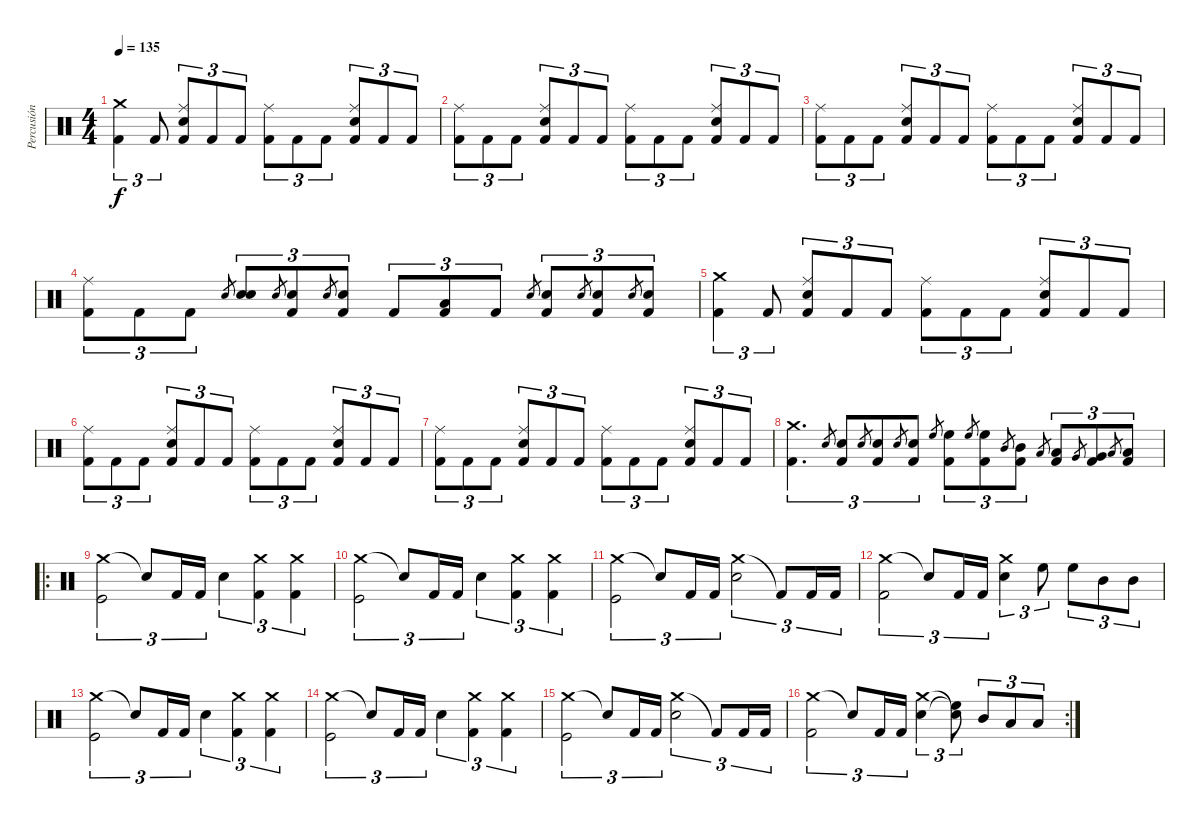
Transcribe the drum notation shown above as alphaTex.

\track ("Percusión" "Percusión") {instrument percussion}
\staff {score}
\articulation defaults
\ts (4 4)
\tempo 135
\clef neutral
\ks c
("Crash medium (hit)" "Kick (hit) 2").4{tu (3 2) dy f} "Kick (hit) 2".8{tu (3 2)} ("Ride (middle)" "Kick (hit) 2" "Snare (hit) 2").8{tu (3 2)} "Kick (hit) 2".8{tu (3 2)} "Kick (hit) 2".8{tu (3 2)} ("Ride (middle)" "Kick (hit) 2").8{tu (3 2)} "Kick (hit) 2".8{tu (3 2)} "Kick (hit) 2".8{tu (3 2)} ("Ride (middle)" "Kick (hit) 2" "Snare (hit) 2").8{tu (3 2)} "Kick (hit) 2".8{tu (3 2)} "Kick (hit) 2".8{tu (3 2)} |
("Ride (middle)" "Kick (hit) 2").8{tu (3 2)} "Kick (hit) 2".8{tu (3 2)} "Kick (hit) 2".8{tu (3 2)} ("Ride (middle)" "Snare (hit) 2" "Kick (hit) 2").8{tu (3 2)} "Kick (hit) 2".8{tu (3 2)} "Kick (hit) 2".8{tu (3 2)} ("Ride (middle)" "Kick (hit) 2").8{tu (3 2)} "Kick (hit) 2".8{tu (3 2)} "Kick (hit) 2".8{tu (3 2)} ("Ride (middle)" "Snare (hit) 2" "Kick (hit) 2").8{tu (3 2)} "Kick (hit) 2".8{tu (3 2)} "Kick (hit) 2".8{tu (3 2)} |
("Ride (middle)" "Kick (hit) 2").8{tu (3 2)} "Kick (hit) 2".8{tu (3 2)} "Kick (hit) 2".8{tu (3 2)} ("Ride (middle)" "Snare (hit) 2" "Kick (hit) 2").8{tu (3 2)} "Kick (hit) 2".8{tu (3 2)} "Kick (hit) 2".8{tu (3 2)} ("Ride (middle)" "Kick (hit) 2").8{tu (3 2)} "Kick (hit) 2".8{tu (3 2)} "Kick (hit) 2".8{tu (3 2)} ("Ride (middle)" "Snare (hit) 2" "Kick (hit) 2").8{tu (3 2)} "Kick (hit) 2".8{tu (3 2)} "Kick (hit) 2".8{tu (3 2)} |
("Ride (middle)" "Kick (hit) 2").8{tu (3 2)} "Kick (hit) 2".8{tu (3 2)} "Kick (hit) 2".8{tu (3 2)} "Snare (hit) 2".8{gr} ("Snare (hit) 2" "Snare (hit) 2").8{tu (3 2)} "Snare (hit) 2".8{gr} ("Snare (hit) 2" "Kick (hit) 2").8{tu (3 2)} "Snare (hit) 2".8{gr} ("Snare (hit) 2" "Kick (hit) 2").8{tu (3 2)} "Kick (hit) 2".8{tu (3 2)} ("Kick (hit) 2" "Low Tom (hit)").8{tu (3 2)} "Kick (hit) 2".8{tu (3 2)} "Snare (hit) 2".8{gr} ("Snare (hit) 2" "Kick (hit) 2").8{tu (3 2)} "Snare (hit) 2".8{gr} ("Snare (hit) 2" "Kick (hit) 2").8{tu (3 2)} "Snare (hit) 2".8{gr} ("Snare (hit) 2" "Kick (hit) 2").8{tu (3 2)} |
("Crash medium (hit)" "Kick (hit) 2").4{tu (3 2)} "Kick (hit) 2".8{tu (3 2)} ("Ride (middle)" "Kick (hit) 2" "Snare (hit) 2").8{tu (3 2)} "Kick (hit) 2".8{tu (3 2)} "Kick (hit) 2".8{tu (3 2)} ("Ride (middle)" "Kick (hit) 2").8{tu (3 2)} "Kick (hit) 2".8{tu (3 2)} "Kick (hit) 2".8{tu (3 2)} ("Ride (middle)" "Kick (hit) 2" "Snare (hit) 2").8{tu (3 2)} "Kick (hit) 2".8{tu (3 2)} "Kick (hit) 2".8{tu (3 2)} |
("Ride (middle)" "Kick (hit) 2").8{tu (3 2)} "Kick (hit) 2".8{tu (3 2)} "Kick (hit) 2".8{tu (3 2)} ("Ride (middle)" "Snare (hit) 2" "Kick (hit) 2").8{tu (3 2)} "Kick (hit) 2".8{tu (3 2)} "Kick (hit) 2".8{tu (3 2)} ("Ride (middle)" "Kick (hit) 2").8{tu (3 2)} "Kick (hit) 2".8{tu (3 2)} "Kick (hit) 2".8{tu (3 2)} ("Ride (middle)" "Snare (hit) 2" "Kick (hit) 2").8{tu (3 2)} "Kick (hit) 2".8{tu (3 2)} "Kick (hit) 2".8{tu (3 2)} |
("Ride (middle)" "Kick (hit) 2").8{tu (3 2)} "Kick (hit) 2".8{tu (3 2)} "Kick (hit) 2".8{tu (3 2)} ("Ride (middle)" "Snare (hit) 2" "Kick (hit) 2").8{tu (3 2)} "Kick (hit) 2".8{tu (3 2)} "Kick (hit) 2".8{tu (3 2)} ("Ride (middle)" "Kick (hit) 2").8{tu (3 2)} "Kick (hit) 2".8{tu (3 2)} "Kick (hit) 2".8{tu (3 2)} ("Ride (middle)" "Snare (hit) 2" "Kick (hit) 2").8{tu (3 2)} "Kick (hit) 2".8{tu (3 2)} "Kick (hit) 2".8{tu (3 2)} |
("Crash medium (hit)" "Kick (hit) 2").4{d tu (3 2)} "Snare (hit) 2".8{gr} ("Kick (hit) 2" "Snare (hit) 2").8{tu (3 2)} "Snare (hit) 2".8{gr} ("Kick (hit) 2" "Snare (hit) 2").8{tu (3 2)} "Snare (hit) 2".8{gr} ("Kick (hit) 2" "Snare (hit) 2").8{tu (3 2)} "High Floor Tom (hit)".8{gr} ("Kick (hit) 2" "High Floor Tom (hit)").8{tu (3 2)} "High Floor Tom (hit)".8{gr} ("Kick (hit) 2" "High Floor Tom (hit)").8{tu (3 2)} "Mid Tom (hit)".8{gr} ("Kick (hit) 2" "Mid Tom (hit)").8{tu (3 2)} "Low Tom (hit)".8{gr} ("Kick (hit) 2" "Low Tom (hit)").8{tu (3 2)} "Very Low Tom (hit)".8{gr} ("Kick (hit) 2" "Very Low Tom (hit)").8{tu (3 2)} "Low Floor Tom (hit)".8{gr} ("Kick (hit) 2" "Low Floor Tom (hit)").8{tu (3 2)} |
\ro
("Crash medium (hit)" "Kick (hit)").2{tu (3 2)} "Snare (hit)"{t}.8{tu (3 2)} "Kick (hit) 2".16{tu (3 2)} "Kick (hit) 2".16{tu (3 2)} "Snare (hit) 2".4{tu (3 2)} ("Crash medium (hit)" "Kick (hit) 2").4{tu (3 2)} ("Crash medium (hit)" "Kick (hit) 2").4{tu (3 2)} |
("Crash medium (hit)" "Kick (hit)").2{tu (3 2)} "Snare (hit)"{t}.8{tu (3 2)} "Kick (hit) 2".16{tu (3 2)} "Kick (hit) 2".16{tu (3 2)} "Snare (hit) 2".4{tu (3 2)} ("Crash medium (hit)" "Kick (hit) 2").4{tu (3 2)} ("Crash medium (hit)" "Kick (hit) 2").4{tu (3 2)} |
("Crash medium (hit)" "Kick (hit)").2{tu (3 2)} "Snare (hit)"{t}.8{tu (3 2)} "Kick (hit) 2".16{tu (3 2)} "Kick (hit) 2".16{tu (3 2)} ("Crash medium (hit)" "Snare (hit) 2").2{tu (3 2)} "Kick (hit) 2"{t}.8{tu (3 2)} "Kick (hit) 2".16{tu (3 2)} "Kick (hit) 2".16{tu (3 2)} |
("Crash medium (hit)" "Kick (hit) 2").2{tu (3 2)} "Snare (hit)"{t}.8{tu (3 2)} "Kick (hit) 2".16{tu (3 2)} "Kick (hit) 2".16{tu (3 2)} ("Crash medium (hit)" "Snare (hit) 2").4{tu (3 2)} "High Floor Tom (hit)".8{tu (3 2)} "High Floor Tom (hit)".8{tu (3 2)} "Mid Tom (hit)".8{tu (3 2)} "Mid Tom (hit)".8{tu (3 2)} |
("Crash medium (hit)" "Kick (hit)").2{tu (3 2)} "Snare (hit)"{t}.8{tu (3 2)} "Kick (hit) 2".16{tu (3 2)} "Kick (hit) 2".16{tu (3 2)} "Snare (hit) 2".4{tu (3 2)} ("Crash medium (hit)" "Kick (hit) 2").4{tu (3 2)} ("Crash medium (hit)" "Kick (hit) 2").4{tu (3 2)} |
("Crash medium (hit)" "Kick (hit)").2{tu (3 2)} "Snare (hit)"{t}.8{tu (3 2)} "Kick (hit) 2".16{tu (3 2)} "Kick (hit) 2".16{tu (3 2)} "Snare (hit) 2".4{tu (3 2)} ("Crash medium (hit)" "Kick (hit) 2").4{tu (3 2)} ("Crash medium (hit)" "Kick (hit) 2").4{tu (3 2)} |
("Crash medium (hit)" "Kick (hit)").2{tu (3 2)} "Snare (hit)"{t}.8{tu (3 2)} "Kick (hit) 2".16{tu (3 2)} "Kick (hit) 2".16{tu (3 2)} ("Crash medium (hit)" "Snare (hit) 2").2{tu (3 2)} "Kick (hit) 2"{t}.8{tu (3 2)} "Kick (hit) 2".16{tu (3 2)} "Kick (hit) 2".16{tu (3 2)} |
\rc 2
("Crash medium (hit)" "Kick (hit) 2").2{tu (3 2)} "Snare (hit)"{t}.8{tu (3 2)} "Kick (hit) 2".16{tu (3 2)} "Kick (hit) 2".16{tu (3 2)} ("Crash medium (hit)" "Snare (hit) 2").4{tu (3 2)} ("Snare (hit)"{t} "High Floor Tom (hit)"{t}).8{tu (3 2)} "Mid Tom (hit)".8{tu (3 2)} "Low Tom (hit)".8{tu (3 2)} "Low Tom (hit)".8{tu (3 2)}
